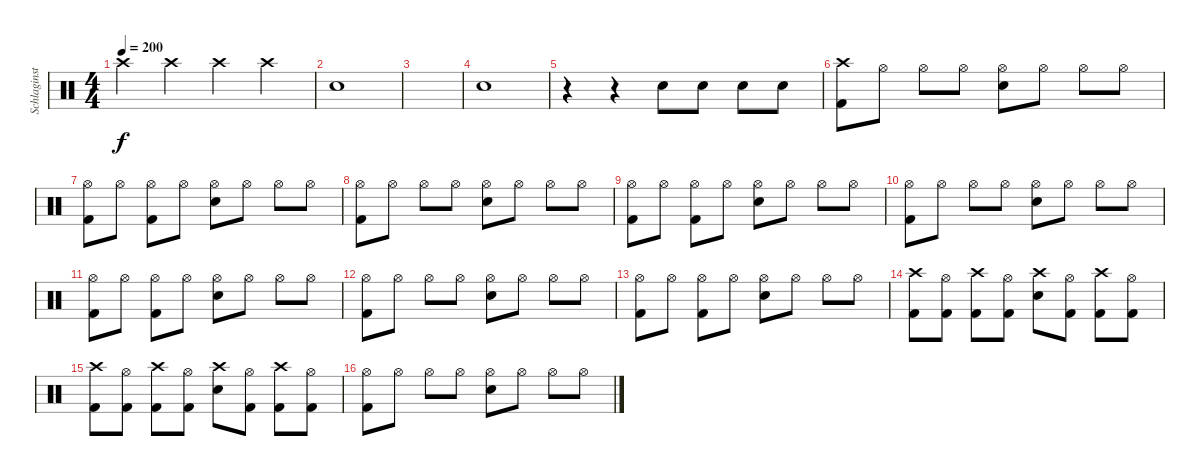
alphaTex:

\track ("Schlaginstrumente - Auswahl" "Schlaginst") {instrument percussion}
\staff {score}
\articulation defaults
\ts (4 4)
\tempo 200
\clef neutral
\ks c "Crash high (hit)".4{dy f} "Crash high (hit)".4 "Crash high (hit)".4 "Crash high (hit)".4
|
"Snare (hit) 2".1 |
|
"Snare (hit) 2".1 |
r.4 r.4 "Snare (hit) 2".8 "Snare (hit) 2".8 "Snare (hit) 2".8 "Snare (hit) 2".8 |
("Crash high (hit)" "Kick (hit) 2").8 "Hi-Hat (open)".8 "Hi-Hat (open)".8 "Hi-Hat (open)".8 ("Hi-Hat (open)" "Snare (hit) 2").8 "Hi-Hat (open)".8 "Hi-Hat (open)".8 "Hi-Hat (open)".8 |
("Hi-Hat (open)" "Kick (hit) 2").8 "Hi-Hat (open)".8 ("Hi-Hat (open)" "Kick (hit) 2").8 "Hi-Hat (open)".8 ("Hi-Hat (open)" "Snare (hit) 2").8 "Hi-Hat (open)".8 "Hi-Hat (open)".8 "Hi-Hat (open)".8 |
("Hi-Hat (open)" "Kick (hit) 2").8 "Hi-Hat (open)".8 "Hi-Hat (open)".8 "Hi-Hat (open)".8 ("Hi-Hat (open)" "Snare (hit) 2").8 "Hi-Hat (open)".8 "Hi-Hat (open)".8 "Hi-Hat (open)".8 |
("Hi-Hat (open)" "Kick (hit) 2").8 "Hi-Hat (open)".8 ("Hi-Hat (open)" "Kick (hit) 2").8 "Hi-Hat (open)".8 ("Hi-Hat (open)" "Snare (hit) 2").8 "Hi-Hat (open)".8 "Hi-Hat (open)".8 "Hi-Hat (open)".8 |
("Hi-Hat (open)" "Kick (hit) 2").8 "Hi-Hat (open)".8 "Hi-Hat (open)".8 "Hi-Hat (open)".8 ("Hi-Hat (open)" "Snare (hit) 2").8 "Hi-Hat (open)".8 "Hi-Hat (open)".8 "Hi-Hat (open)".8 |
("Hi-Hat (open)" "Kick (hit) 2").8 "Hi-Hat (open)".8 ("Hi-Hat (open)" "Kick (hit) 2").8 "Hi-Hat (open)".8 ("Hi-Hat (open)" "Snare (hit) 2").8 "Hi-Hat (open)".8 "Hi-Hat (open)".8 "Hi-Hat (open)".8 |
("Hi-Hat (open)" "Kick (hit) 2").8 "Hi-Hat (open)".8 "Hi-Hat (open)".8 "Hi-Hat (open)".8 ("Hi-Hat (open)" "Snare (hit) 2").8 "Hi-Hat (open)".8 "Hi-Hat (open)".8 "Hi-Hat (open)".8 |
("Hi-Hat (open)" "Kick (hit) 2").8 "Hi-Hat (open)".8 ("Hi-Hat (open)" "Kick (hit) 2").8 "Hi-Hat (open)".8 ("Hi-Hat (open)" "Snare (hit) 2").8 "Hi-Hat (open)".8 "Hi-Hat (open)".8 "Hi-Hat (open)".8 |
("Crash high (hit)" "Kick (hit) 2").8 ("Hi-Hat (open)" "Kick (hit) 2").8 ("Crash high (hit)" "Kick (hit) 2").8 ("Hi-Hat (open)" "Kick (hit) 2").8 ("Crash high (hit)" "Snare (hit) 2").8 ("Hi-Hat (open)" "Kick (hit) 2").8 ("Crash high (hit)" "Kick (hit) 2").8 ("Hi-Hat (open)" "Kick (hit) 2").8 |
("Crash high (hit)" "Kick (hit) 2").8 ("Hi-Hat (open)" "Kick (hit) 2").8 ("Crash high (hit)" "Kick (hit) 2").8 ("Hi-Hat (open)" "Kick (hit) 2").8 ("Crash high (hit)" "Snare (hit) 2").8 ("Hi-Hat (open)" "Kick (hit) 2").8 ("Crash high (hit)" "Kick (hit) 2").8 ("Hi-Hat (open)" "Kick (hit) 2").8 |
("Hi-Hat (open)" "Kick (hit) 2").8 "Hi-Hat (open)".8 "Hi-Hat (open)".8 "Hi-Hat (open)".8 ("Hi-Hat (open)" "Snare (hit) 2").8 "Hi-Hat (open)".8 "Hi-Hat (open)".8 "Hi-Hat (open)".8
